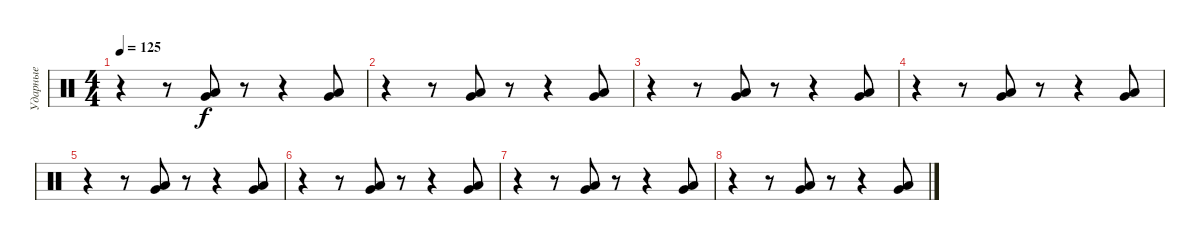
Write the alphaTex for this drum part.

\track ("Ударные" "Ударные") {instrument percussion}
\staff {score}
\articulation defaults
\ts (4 4)
\tempo 125
\clef neutral
\ks c
r.4{dy f} r.8 ("Low Floor Tom (hit)" "Very Low Tom (hit)").8 r.8 r.4 ("Very Low Tom (hit)" "Low Floor Tom (hit)").8 |
r.4 r.8 ("Low Floor Tom (hit)" "Very Low Tom (hit)").8 r.8 r.4 ("Very Low Tom (hit)" "Low Floor Tom (hit)").8 |
r.4 r.8 ("Low Floor Tom (hit)" "Very Low Tom (hit)").8 r.8 r.4 ("Very Low Tom (hit)" "Low Floor Tom (hit)").8 |
r.4 r.8 ("Low Floor Tom (hit)" "Very Low Tom (hit)").8 r.8 r.4 ("Very Low Tom (hit)" "Low Floor Tom (hit)").8 |
r.4 r.8 ("Low Floor Tom (hit)" "Very Low Tom (hit)").8 r.8 r.4 ("Very Low Tom (hit)" "Low Floor Tom (hit)").8 |
r.4 r.8 ("Low Floor Tom (hit)" "Very Low Tom (hit)").8 r.8 r.4 ("Very Low Tom (hit)" "Low Floor Tom (hit)").8 |
r.4 r.8 ("Low Floor Tom (hit)" "Very Low Tom (hit)").8 r.8 r.4 ("Very Low Tom (hit)" "Low Floor Tom (hit)").8 |
r.4 r.8 ("Low Floor Tom (hit)" "Very Low Tom (hit)").8 r.8 r.4 ("Very Low Tom (hit)" "Low Floor Tom (hit)").8
